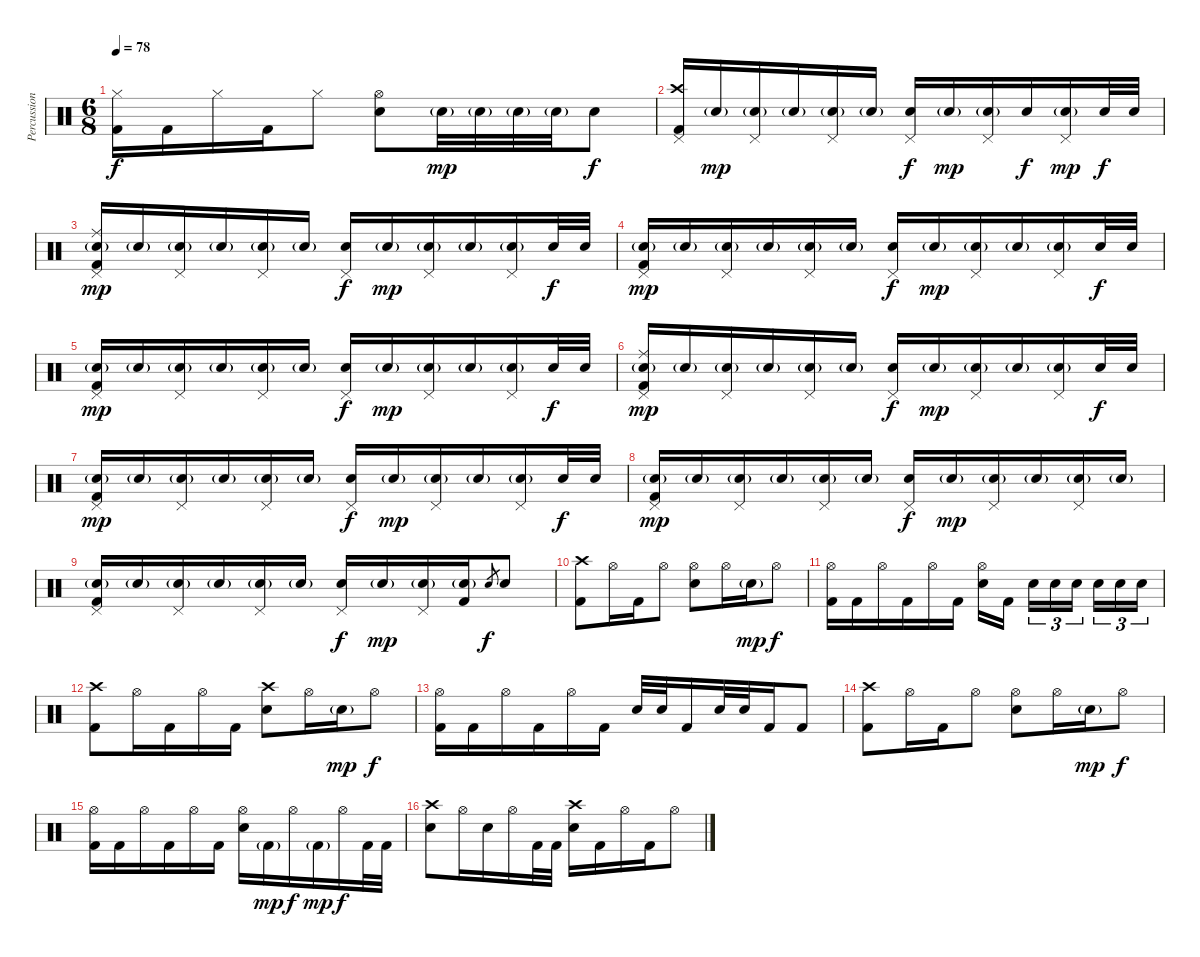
\track ("Percussion" "Percussion") {instrument percussion}
\staff {score}
\articulation defaults
\ts (6 8)
\tempo 78
\clef neutral
\ks c
("Hi-Hat (closed)" "Kick (hit) 2").16{dy f} "Kick (hit) 2".16 "Hi-Hat (closed)".16 "Kick (hit) 2".16 "Hi-Hat (closed)".8 ("Hi-Hat (open)" "Electric Snare (hit)").8 "Electric Snare (hit)"{g}.32{dy mp} "Electric Snare (hit)"{g}.32 "Electric Snare (hit)"{g}.32 "Electric Snare (hit)"{g}.32 "Electric Snare (hit)".8{dy f} |
("Crash high (hit)" "Pedal Hi-Hat (hit)" "Kick (hit) 2").16{volume 10} "Electric Snare (hit)"{g}.16{dy mp} ("Pedal Hi-Hat (hit)" "Electric Snare (hit)"{g}).16 "Electric Snare (hit)"{g}.16 ("Pedal Hi-Hat (hit)" "Electric Snare (hit)"{g}).16 "Electric Snare (hit)"{g}.16 ("Pedal Hi-Hat (hit)" "Electric Snare (hit)").16{dy f} "Electric Snare (hit)"{g}.16{dy mp} ("Pedal Hi-Hat (hit)" "Electric Snare (hit)"{g}).16 "Electric Snare (hit)".16{dy f} ("Pedal Hi-Hat (hit)" "Electric Snare (hit)"{g}).16{dy mp} "Electric Snare (hit)".32{dy f} "Electric Snare (hit)".32 |
("Ride (middle)" "Pedal Hi-Hat (hit)" "Electric Snare (hit)"{g} "Kick (hit) 2").16{dy mp} "Electric Snare (hit)"{g}.16 ("Pedal Hi-Hat (hit)" "Electric Snare (hit)"{g}).16 "Electric Snare (hit)"{g}.16 ("Pedal Hi-Hat (hit)" "Electric Snare (hit)"{g}).16 "Electric Snare (hit)"{g}.16 ("Pedal Hi-Hat (hit)" "Electric Snare (hit)").16{dy f} "Electric Snare (hit)"{g}.16{dy mp} ("Pedal Hi-Hat (hit)" "Electric Snare (hit)"{g}).16 "Electric Snare (hit)"{g}.16 ("Pedal Hi-Hat (hit)" "Electric Snare (hit)"{g}).16 "Electric Snare (hit)".32{dy f} "Electric Snare (hit)".32 |
("Pedal Hi-Hat (hit)" "Electric Snare (hit)"{g} "Kick (hit) 2").16{dy mp} "Electric Snare (hit)"{g}.16 ("Pedal Hi-Hat (hit)" "Electric Snare (hit)"{g}).16 "Electric Snare (hit)"{g}.16 ("Pedal Hi-Hat (hit)" "Electric Snare (hit)"{g}).16 "Electric Snare (hit)"{g}.16 ("Pedal Hi-Hat (hit)" "Electric Snare (hit)").16{dy f} "Electric Snare (hit)"{g}.16{dy mp} ("Pedal Hi-Hat (hit)" "Electric Snare (hit)"{g}).16 "Electric Snare (hit)"{g}.16 ("Pedal Hi-Hat (hit)" "Electric Snare (hit)"{g}).16 "Electric Snare (hit)".32{dy f} "Electric Snare (hit)".32 |
("Pedal Hi-Hat (hit)" "Electric Snare (hit)"{g} "Kick (hit) 2").16{dy mp} "Electric Snare (hit)"{g}.16 ("Pedal Hi-Hat (hit)" "Electric Snare (hit)"{g}).16 "Electric Snare (hit)"{g}.16 ("Pedal Hi-Hat (hit)" "Electric Snare (hit)"{g}).16 "Electric Snare (hit)"{g}.16 ("Pedal Hi-Hat (hit)" "Electric Snare (hit)").16{dy f} "Electric Snare (hit)"{g}.16{dy mp} ("Pedal Hi-Hat (hit)" "Electric Snare (hit)"{g}).16 "Electric Snare (hit)"{g}.16 ("Pedal Hi-Hat (hit)" "Electric Snare (hit)"{g}).16 "Electric Snare (hit)".32{dy f} "Electric Snare (hit)".32 |
("Ride (middle)" "Pedal Hi-Hat (hit)" "Electric Snare (hit)"{g} "Kick (hit) 2").16{dy mp} "Electric Snare (hit)"{g}.16 ("Pedal Hi-Hat (hit)" "Electric Snare (hit)"{g}).16 "Electric Snare (hit)"{g}.16 ("Pedal Hi-Hat (hit)" "Electric Snare (hit)"{g}).16 "Electric Snare (hit)"{g}.16 ("Pedal Hi-Hat (hit)" "Electric Snare (hit)").16{dy f} "Electric Snare (hit)"{g}.16{dy mp} ("Pedal Hi-Hat (hit)" "Electric Snare (hit)"{g}).16 "Electric Snare (hit)"{g}.16 ("Pedal Hi-Hat (hit)" "Electric Snare (hit)"{g}).16 "Electric Snare (hit)".32{dy f} "Electric Snare (hit)".32 |
("Pedal Hi-Hat (hit)" "Electric Snare (hit)"{g} "Kick (hit) 2").16{dy mp} "Electric Snare (hit)"{g}.16 ("Pedal Hi-Hat (hit)" "Electric Snare (hit)"{g}).16 "Electric Snare (hit)"{g}.16 ("Pedal Hi-Hat (hit)" "Electric Snare (hit)"{g}).16 "Electric Snare (hit)"{g}.16 ("Pedal Hi-Hat (hit)" "Electric Snare (hit)").16{dy f} "Electric Snare (hit)"{g}.16{dy mp} ("Pedal Hi-Hat (hit)" "Electric Snare (hit)"{g}).16 "Electric Snare (hit)"{g}.16 ("Pedal Hi-Hat (hit)" "Electric Snare (hit)"{g}).16 "Electric Snare (hit)".32{dy f} "Electric Snare (hit)".32 |
("Pedal Hi-Hat (hit)" "Electric Snare (hit)"{g} "Kick (hit) 2").16{dy mp} "Electric Snare (hit)"{g}.16 ("Pedal Hi-Hat (hit)" "Electric Snare (hit)"{g}).16 "Electric Snare (hit)"{g}.16 ("Pedal Hi-Hat (hit)" "Electric Snare (hit)"{g}).16 "Electric Snare (hit)"{g}.16 ("Pedal Hi-Hat (hit)" "Electric Snare (hit)").16{dy f} "Electric Snare (hit)"{g}.16{dy mp} ("Pedal Hi-Hat (hit)" "Electric Snare (hit)"{g}).16 "Electric Snare (hit)"{g}.16 ("Pedal Hi-Hat (hit)" "Electric Snare (hit)"{g}).16 "Electric Snare (hit)"{g}.16 |
("Pedal Hi-Hat (hit)" "Electric Snare (hit)"{g} "Kick (hit) 2").16 "Electric Snare (hit)"{g}.16 ("Pedal Hi-Hat (hit)" "Electric Snare (hit)"{g}).16 "Electric Snare (hit)"{g}.16 ("Pedal Hi-Hat (hit)" "Electric Snare (hit)"{g}).16 "Electric Snare (hit)"{g}.16 ("Pedal Hi-Hat (hit)" "Electric Snare (hit)").16{dy f} "Electric Snare (hit)"{g}.16{dy mp} ("Pedal Hi-Hat (hit)" "Electric Snare (hit)"{g}).16 ("Electric Snare (hit)"{g} "Kick (hit) 2").16 "Electric Snare (hit)".8{gr dy f} "Electric Snare (hit)".8 |
("Crash high (hit)" "Kick (hit) 2").8{volume 16} "Hi-Hat (open)".16 "Kick (hit) 2".16 "Hi-Hat (open)".8 ("Hi-Hat (open)" "Electric Snare (hit)").8 "Hi-Hat (open)".16 "Electric Snare (hit)"{g}.16{dy mp} "Hi-Hat (open)".8{dy f} |
("Hi-Hat (open)" "Kick (hit) 2").16 "Kick (hit) 2".16 "Hi-Hat (open)".16 "Kick (hit) 2".16 "Hi-Hat (open)".16 "Kick (hit) 2".16 ("Hi-Hat (open)" "Electric Snare (hit)").16 "Kick (hit) 2".16 "Electric Snare (hit)".16{tu (3 2)} "Electric Snare (hit)".16{tu (3 2)} "Electric Snare (hit)".16{tu (3 2)} "Electric Snare (hit)".16{tu (3 2)} "Electric Snare (hit)".16{tu (3 2)} "Electric Snare (hit)".16{tu (3 2)} |
("Crash high (hit)" "Kick (hit) 2").8 "Hi-Hat (open)".16 "Kick (hit) 2".16 "Hi-Hat (open)".16 "Kick (hit) 2".16 ("Crash high (hit)" "Electric Snare (hit)").8 "Hi-Hat (open)".16 "Electric Snare (hit)"{g}.16{dy mp} "Hi-Hat (open)".8{dy f} |
("Hi-Hat (open)" "Kick (hit) 2").16 "Kick (hit) 2".16 "Hi-Hat (open)".16 "Kick (hit) 2".16 "Hi-Hat (open)".16 "Kick (hit) 2".16 "Electric Snare (hit)".32 "Electric Snare (hit)".32 "Kick (hit) 2".16 "Electric Snare (hit)".32 "Electric Snare (hit)".32 "Kick (hit) 2".16 "Kick (hit) 2".8 |
("Crash high (hit)" "Kick (hit) 2").8 "Hi-Hat (open)".16 "Kick (hit) 2".16 "Hi-Hat (open)".8 ("Hi-Hat (open)" "Electric Snare (hit)").8 "Hi-Hat (open)".16 "Electric Snare (hit)"{g}.16{dy mp} "Hi-Hat (open)".8{dy f} |
("Hi-Hat (open)" "Kick (hit) 2").16 "Kick (hit) 2".16 "Hi-Hat (open)".16 "Kick (hit) 2".16 "Hi-Hat (open)".16 "Kick (hit) 2".16 ("Hi-Hat (open)" "Electric Snare (hit)").16 "Kick (hit) 2"{g}.16{dy mp} "Hi-Hat (open)".16{dy f} "Kick (hit) 2"{g}.16{dy mp} "Hi-Hat (open)".16{dy f} "Kick (hit) 2".32 "Kick (hit) 2".32 |
("Crash high (hit)" "Electric Snare (hit)").8 "Hi-Hat (open)".16 "Electric Snare (hit)".16 "Hi-Hat (open)".16 "Kick (hit) 2".32 "Kick (hit) 2".32 ("Crash high (hit)" "Electric Snare (hit)").16 "Kick (hit) 2".16 "Hi-Hat (open)".16 "Kick (hit) 2".16 "Hi-Hat (open)".8
